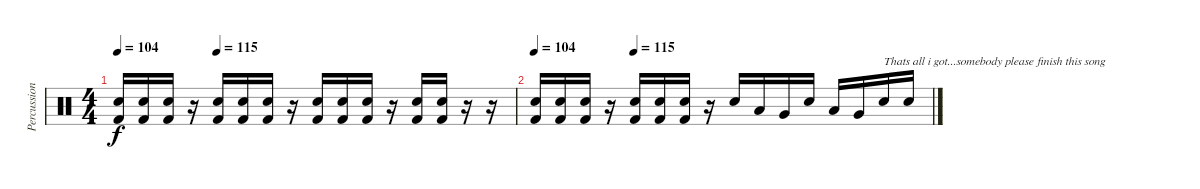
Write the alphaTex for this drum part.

\track ("Percussion" "Percussion") {instrument percussion}
\staff {score}
\articulation defaults
\ts (4 4)
\tempo 110
\tempo (115 0.25)
\tempo 104
\clef neutral
\ks c
("Electric Snare (hit)" "Kick (hit) 2").16{dy f} ("Electric Snare (hit)" "Kick (hit) 2").16 ("Electric Snare (hit)" "Kick (hit) 2").16 r.16 ("Electric Snare (hit)" "Kick (hit) 2").16 ("Electric Snare (hit)" "Kick (hit) 2").16 ("Electric Snare (hit)" "Kick (hit) 2").16 r.16 ("Electric Snare (hit)" "Kick (hit) 2").16 ("Electric Snare (hit)" "Kick (hit) 2").16 ("Electric Snare (hit)" "Kick (hit) 2").16 r.16 ("Electric Snare (hit)" "Kick (hit) 2").16 ("Electric Snare (hit)" "Kick (hit) 2").16 r.16 r.16 |
\tempo 104
\tempo (115 0.25)
("Electric Snare (hit)" "Kick (hit) 2").16 ("Electric Snare (hit)" "Kick (hit) 2").16 ("Electric Snare (hit)" "Kick (hit) 2").16 r.16 ("Electric Snare (hit)" "Kick (hit) 2").16 ("Electric Snare (hit)" "Kick (hit) 2").16 ("Electric Snare (hit)" "Kick (hit) 2").16 r.16 "Electric Snare (hit)".16 "Low Floor Tom (hit)".16 "Very Low Tom (hit)".16 "Electric Snare (hit)".16 "Low Floor Tom (hit)".16 "Very Low Tom (hit)".16 "Electric Snare (hit)".16{txt "Thats all i got...somebody please finish this song"} "Electric Snare (hit)".16
